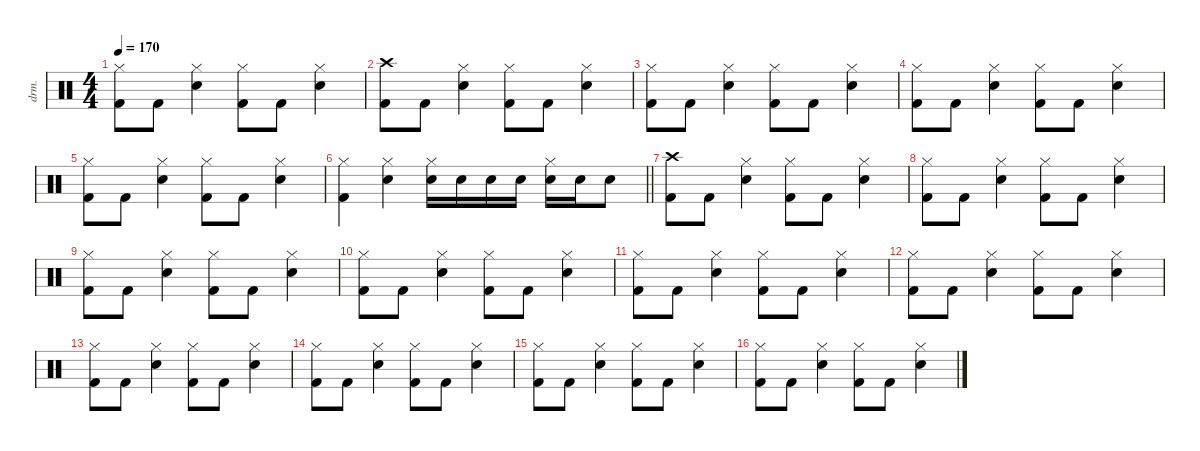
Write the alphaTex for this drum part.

\defaultSystemsLayout 4
\hideDynamics
\bracketExtendMode nobrackets
\otherSystemsTrackNameOrientation horizontal
\track ("Percussion" "drm.") {instrument percussion}
\staff {score}
\articulation defaults
\ts (4 4)
\tempo 170
\clef neutral
\ks c
("Hi-Hat (closed)" "Kick (hit) 2").8{dy f beam Down} "Kick (hit) 2".8{beam Down} ("Hi-Hat (closed)" "Snare (hit) 2").4{beam Down} ("Hi-Hat (closed)" "Kick (hit) 2").8{beam Down} "Kick (hit) 2".8{beam Down} ("Hi-Hat (closed)" "Snare (hit) 2").4{beam Down} |
("Crash high (hit)" "Kick (hit) 2").8{beam Down} "Kick (hit) 2".8{beam Down} ("Hi-Hat (closed)" "Snare (hit) 2").4{beam Down} ("Hi-Hat (closed)" "Kick (hit) 2").8{beam Down} "Kick (hit) 2".8{beam Down} ("Hi-Hat (closed)" "Snare (hit) 2").4{beam Down} |
("Hi-Hat (closed)" "Kick (hit) 2").8{beam Down} "Kick (hit) 2".8{beam Down} ("Hi-Hat (closed)" "Snare (hit) 2").4{beam Down} ("Hi-Hat (closed)" "Kick (hit) 2").8{beam Down} "Kick (hit) 2".8{beam Down} ("Hi-Hat (closed)" "Snare (hit) 2").4{beam Down} |
("Hi-Hat (closed)" "Kick (hit) 2").8{beam Down} "Kick (hit) 2".8{beam Down} ("Hi-Hat (closed)" "Snare (hit) 2").4{beam Down} ("Hi-Hat (closed)" "Kick (hit) 2").8{beam Down} "Kick (hit) 2".8{beam Down} ("Hi-Hat (closed)" "Snare (hit) 2").4{beam Down} |
("Hi-Hat (closed)" "Kick (hit) 2").8{beam Down} "Kick (hit) 2".8{beam Down} ("Hi-Hat (closed)" "Snare (hit) 2").4{beam Down} ("Hi-Hat (closed)" "Kick (hit) 2").8{beam Down} "Kick (hit) 2".8{beam Down} ("Hi-Hat (closed)" "Snare (hit) 2").4{beam Down} |
\barLineRight lightlight
("Hi-Hat (closed)" "Kick (hit) 2").4{beam Down} ("Hi-Hat (closed)" "Snare (hit) 2").4{beam Down} ("Hi-Hat (closed)" "Snare (hit) 2").16{beam Down} "Snare (hit) 2".16{beam Down} "Snare (hit) 2".16{beam Down} "Snare (hit) 2".16{beam Down} ("Hi-Hat (closed)" "Snare (hit) 2").16{beam Down} "Snare (hit) 2".16{beam Down} "Snare (hit) 2".8{beam Down} |
("Crash high (hit)" "Kick (hit) 2").8{beam Down} "Kick (hit) 2".8{beam Down} ("Hi-Hat (closed)" "Snare (hit) 2").4{beam Down} ("Hi-Hat (closed)" "Kick (hit) 2").8{beam Down} "Kick (hit) 2".8{beam Down} ("Hi-Hat (closed)" "Snare (hit) 2").4{beam Down} |
("Hi-Hat (closed)" "Kick (hit) 2").8{beam Down} "Kick (hit) 2".8{beam Down} ("Hi-Hat (closed)" "Snare (hit) 2").4{beam Down} ("Hi-Hat (closed)" "Kick (hit) 2").8{beam Down} "Kick (hit) 2".8{beam Down} ("Hi-Hat (closed)" "Snare (hit) 2").4{beam Down} |
("Hi-Hat (closed)" "Kick (hit) 2").8{beam Down} "Kick (hit) 2".8{beam Down} ("Hi-Hat (closed)" "Snare (hit) 2").4{beam Down} ("Hi-Hat (closed)" "Kick (hit) 2").8{beam Down} "Kick (hit) 2".8{beam Down} ("Hi-Hat (closed)" "Snare (hit) 2").4{beam Down} |
("Hi-Hat (closed)" "Kick (hit) 2").8{beam Down} "Kick (hit) 2".8{beam Down} ("Hi-Hat (closed)" "Snare (hit) 2").4{beam Down} ("Hi-Hat (closed)" "Kick (hit) 2").8{beam Down} "Kick (hit) 2".8{beam Down} ("Hi-Hat (closed)" "Snare (hit) 2").4{beam Down} |
("Hi-Hat (closed)" "Kick (hit) 2").8{beam Down} "Kick (hit) 2".8{beam Down} ("Hi-Hat (closed)" "Snare (hit) 2").4{beam Down} ("Hi-Hat (closed)" "Kick (hit) 2").8{beam Down} "Kick (hit) 2".8{beam Down} ("Hi-Hat (closed)" "Snare (hit) 2").4{beam Down} |
("Hi-Hat (closed)" "Kick (hit) 2").8{beam Down} "Kick (hit) 2".8{beam Down} ("Hi-Hat (closed)" "Snare (hit) 2").4{beam Down} ("Hi-Hat (closed)" "Kick (hit) 2").8{beam Down} "Kick (hit) 2".8{beam Down} ("Hi-Hat (closed)" "Snare (hit) 2").4{beam Down} |
("Hi-Hat (closed)" "Kick (hit) 2").8{beam Down} "Kick (hit) 2".8{beam Down} ("Hi-Hat (closed)" "Snare (hit) 2").4{beam Down} ("Hi-Hat (closed)" "Kick (hit) 2").8{beam Down} "Kick (hit) 2".8{beam Down} ("Hi-Hat (closed)" "Snare (hit) 2").4{beam Down} |
("Hi-Hat (closed)" "Kick (hit) 2").8{beam Down} "Kick (hit) 2".8{beam Down} ("Hi-Hat (closed)" "Snare (hit) 2").4{beam Down} ("Hi-Hat (closed)" "Kick (hit) 2").8{beam Down} "Kick (hit) 2".8{beam Down} ("Hi-Hat (closed)" "Snare (hit) 2").4{beam Down} |
("Hi-Hat (closed)" "Kick (hit) 2").8{beam Down} "Kick (hit) 2".8{beam Down} ("Hi-Hat (closed)" "Snare (hit) 2").4{beam Down} ("Hi-Hat (closed)" "Kick (hit) 2").8{beam Down} "Kick (hit) 2".8{beam Down} ("Hi-Hat (closed)" "Snare (hit) 2").4{beam Down} |
("Hi-Hat (closed)" "Kick (hit) 2").8{beam Down} "Kick (hit) 2".8{beam Down} ("Hi-Hat (closed)" "Snare (hit) 2").4{beam Down} ("Hi-Hat (closed)" "Kick (hit) 2").8{beam Down} "Kick (hit) 2".8{beam Down} ("Hi-Hat (closed)" "Snare (hit) 2").4{beam Down}
